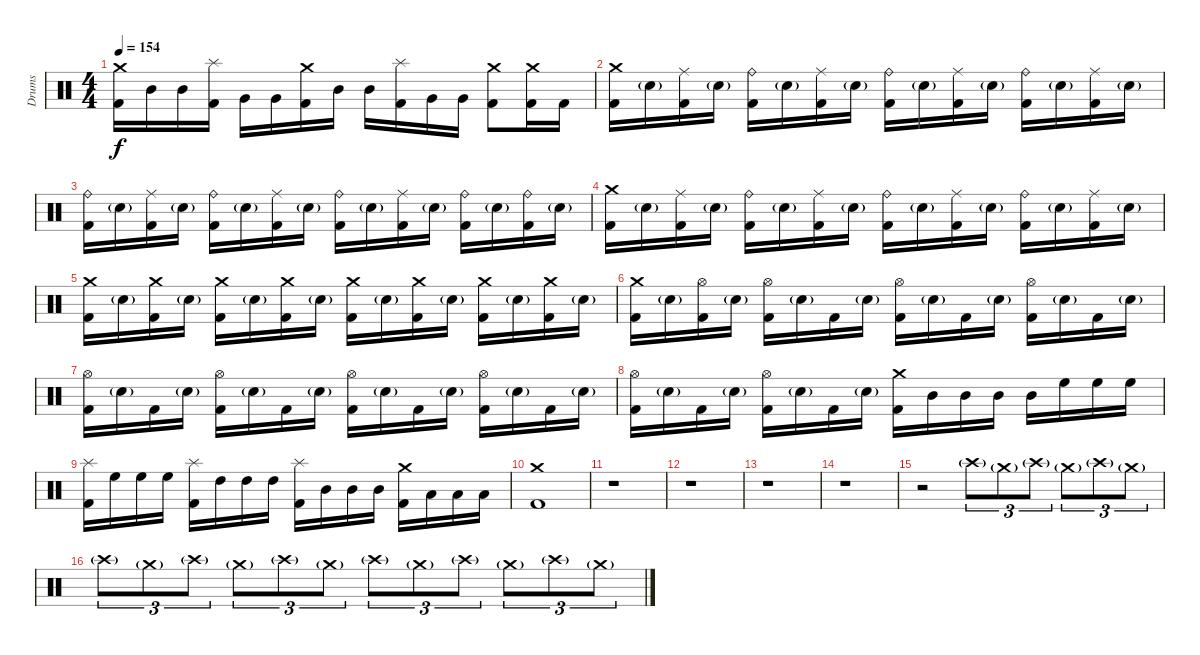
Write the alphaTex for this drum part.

\track ("Drums" "Drums") {instrument percussion}
\staff {score}
\articulation defaults
\ts (4 4)
\tempo 154
\clef neutral
\ks c
("Crash medium (hit)" "Kick (hit) 2").16{dy f} "Mid Tom (hit)".16 "Mid Tom (hit)".16 ("Splash (hit)" "Kick (hit) 2").16 "Very Low Tom (hit)".16 "Very Low Tom (hit)".16 ("Crash medium (hit)" "Kick (hit) 2").16 "Mid Tom (hit)".16 "Mid Tom (hit)".16 ("Splash (hit)" "Kick (hit) 2").16 "Very Low Tom (hit)".16 "Very Low Tom (hit)".16 ("Crash medium (hit)" "Kick (hit) 2").8 ("Crash medium (hit)" "Kick (hit) 2").16 "Kick (hit) 2".16 |
("Crash medium (hit)" "Kick (hit) 2").16 "Snare (hit) 2"{g}.16 ("Ride (middle)" "Kick (hit) 2").16 "Snare (hit) 2"{g}.16 ("Ride (bell)" "Kick (hit) 2").16 "Snare (hit) 2"{g}.16 ("Ride (middle)" "Kick (hit) 2").16 "Snare (hit) 2"{g}.16 ("Ride (bell)" "Kick (hit) 2").16 "Snare (hit) 2"{g}.16 ("Ride (middle)" "Kick (hit) 2").16 "Snare (hit) 2"{g}.16 ("Ride (bell)" "Kick (hit) 2").16 "Snare (hit) 2"{g}.16 ("Ride (middle)" "Kick (hit) 2").16 "Snare (hit) 2"{g}.16 |
("Ride (bell)" "Kick (hit) 2").16 "Snare (hit) 2"{g}.16 ("Ride (middle)" "Kick (hit) 2").16 "Snare (hit) 2"{g}.16 ("Ride (bell)" "Kick (hit) 2").16 "Snare (hit) 2"{g}.16 ("Ride (middle)" "Kick (hit) 2").16 "Snare (hit) 2"{g}.16 ("Ride (bell)" "Kick (hit) 2").16 "Snare (hit) 2"{g}.16 ("Ride (middle)" "Kick (hit) 2").16 "Snare (hit) 2"{g}.16 ("Ride (bell)" "Kick (hit) 2").16 "Snare (hit) 2"{g}.16 ("Ride (bell)" "Kick (hit) 2").16 "Snare (hit) 2"{g}.16 |
("Crash medium (hit)" "Kick (hit) 2").16 "Snare (hit) 2"{g}.16 ("Ride (middle)" "Kick (hit) 2").16 "Snare (hit) 2"{g}.16 ("Ride (bell)" "Kick (hit) 2").16 "Snare (hit) 2"{g}.16 ("Ride (middle)" "Kick (hit) 2").16 "Snare (hit) 2"{g}.16 ("Ride (bell)" "Kick (hit) 2").16 "Snare (hit) 2"{g}.16 ("Ride (middle)" "Kick (hit) 2").16 "Snare (hit) 2"{g}.16 ("Ride (bell)" "Kick (hit) 2").16 "Snare (hit) 2"{g}.16 ("Ride (middle)" "Kick (hit) 2").16 "Snare (hit) 2"{g}.16 |
("Crash medium (hit)" "Kick (hit) 2").16 "Snare (hit) 2"{g}.16 ("Crash medium (hit)" "Kick (hit) 2").16 "Snare (hit) 2"{g}.16 ("Crash medium (hit)" "Kick (hit) 2").16 "Snare (hit) 2"{g}.16 ("Crash medium (hit)" "Kick (hit) 2").16 "Snare (hit) 2"{g}.16 ("Crash medium (hit)" "Kick (hit) 2").16 "Snare (hit) 2"{g}.16 ("Crash medium (hit)" "Kick (hit) 2").16 "Snare (hit) 2"{g}.16 ("Crash medium (hit)" "Kick (hit) 2").16 "Snare (hit) 2"{g}.16 ("Crash medium (hit)" "Kick (hit) 2").16 "Snare (hit) 2"{g}.16 |
("Crash medium (hit)" "Kick (hit) 2").16 "Snare (hit) 2"{g}.16 ("Hi-Hat (open)" "Kick (hit) 2").16 "Snare (hit) 2"{g}.16 ("Hi-Hat (open)" "Kick (hit) 2").16 "Snare (hit) 2"{g}.16 "Kick (hit) 2".16 "Snare (hit) 2"{g}.16 ("Hi-Hat (open)" "Kick (hit) 2").16 "Snare (hit) 2"{g}.16 "Kick (hit) 2".16 "Snare (hit) 2"{g}.16 ("Hi-Hat (open)" "Kick (hit) 2").16 "Snare (hit) 2"{g}.16 "Kick (hit) 2".16 "Snare (hit) 2"{g}.16 |
("Hi-Hat (open)" "Kick (hit) 2").16 "Snare (hit) 2"{g}.16 "Kick (hit) 2".16 "Snare (hit) 2"{g}.16 ("Hi-Hat (open)" "Kick (hit) 2").16 "Snare (hit) 2"{g}.16 "Kick (hit) 2".16 "Snare (hit) 2"{g}.16 ("Hi-Hat (open)" "Kick (hit) 2").16 "Snare (hit) 2"{g}.16 "Kick (hit) 2".16 "Snare (hit) 2"{g}.16 ("Hi-Hat (open)" "Kick (hit) 2").16 "Snare (hit) 2"{g}.16 "Kick (hit) 2".16 "Snare (hit) 2"{g}.16 |
("Hi-Hat (open)" "Kick (hit) 2").16 "Snare (hit) 2"{g}.16 "Kick (hit) 2".16 "Snare (hit) 2"{g}.16 ("Hi-Hat (open)" "Kick (hit) 2").16 "Snare (hit) 2"{g}.16 "Kick (hit) 2".16 "Snare (hit) 2"{g}.16 ("Crash medium (hit)" "Kick (hit) 2").16 "Mid Tom (hit)".16 "Mid Tom (hit)".16 "Mid Tom (hit)".16 "Mid Tom (hit)".16 "High Floor Tom (hit)".16 "High Floor Tom (hit)".16 "High Floor Tom (hit)".16 |
("Splash (hit)" "Kick (hit) 2").16 "High Floor Tom (hit)".16 "High Floor Tom (hit)".16 "High Floor Tom (hit)".16 ("Splash (hit)" "Kick (hit) 2").16 "High Tom (hit)".16 "High Tom (hit)".16 "High Tom (hit)".16 ("Splash (hit)" "Kick (hit) 2").16 "Mid Tom (hit)".16 "Mid Tom (hit)".16 "Mid Tom (hit)".16 ("Crash medium (hit)" "Kick (hit) 2").16 "Low Tom (hit)".16 "Low Tom (hit)".16 "Low Tom (hit)".16 |
("Crash medium (hit)" "Kick (hit) 2").1 |
r.1 |
r.1 |
r.1 |
r.1 |
r.2 "Crash high (hit)"{g}.8{tu (3 2)} "Crash medium (hit)"{g}.8{tu (3 2)} "Crash high (hit)"{g}.8{tu (3 2)} "Crash medium (hit)"{g}.8{tu (3 2)} "Crash high (hit)"{g}.8{tu (3 2)} "Crash medium (hit)"{g}.8{tu (3 2)} |
"Crash high (hit)"{g}.8{tu (3 2)} "Crash medium (hit)"{g}.8{tu (3 2)} "Crash high (hit)"{g}.8{tu (3 2)} "Crash medium (hit)"{g}.8{tu (3 2)} "Crash high (hit)"{g}.8{tu (3 2)} "Crash medium (hit)"{g}.8{tu (3 2)} "Crash high (hit)"{g}.8{tu (3 2)} "Crash medium (hit)"{g}.8{tu (3 2)} "Crash high (hit)"{g}.8{tu (3 2)} "Crash medium (hit)"{g}.8{tu (3 2)} "Crash high (hit)"{g}.8{tu (3 2)} "Crash medium (hit)"{g}.8{tu (3 2)}
